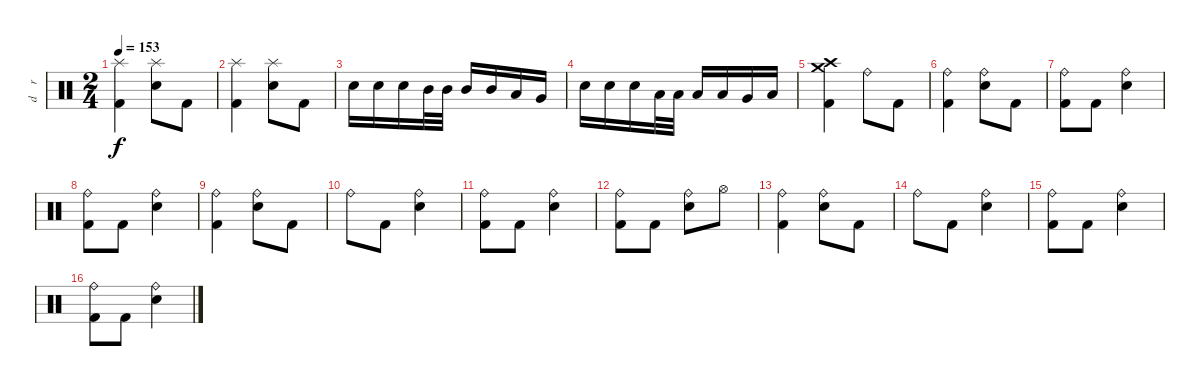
\track ("d    r     u    m    s" "d    r    ") {instrument percussion}
\staff {score}
\articulation defaults
\ts (2 4)
\tempo 153
\clef neutral
\ks c
("Splash (hit)" "Kick (hit) 2").4{dy f} ("Splash (hit)" "Electric Snare (hit)").8 "Kick (hit) 2".8 |
("Splash (hit)" "Kick (hit) 2").4 ("Splash (hit)" "Electric Snare (hit)").8 "Kick (hit) 2".8 |
"Electric Snare (hit)".16 "Electric Snare (hit)".16 "Electric Snare (hit)".16 "Mid Tom (hit)".32 "Mid Tom (hit)".32 "Mid Tom (hit)".16 "Mid Tom (hit)".16 "Low Tom (hit)".16 "Very Low Tom (hit)".16 |
"Electric Snare (hit)".16 "Electric Snare (hit)".16 "Electric Snare (hit)".16 "Low Tom (hit)".32 "Low Tom (hit)".32 "Low Tom (hit)".16 "Low Tom (hit)".16 "Very Low Tom (hit)".16 "Low Floor Tom (hit)".16 |
("Crash high (hit)" "Crash medium (hit)" "Kick (hit) 2").4 "Ride (bell)".8 "Kick (hit) 2".8 |
("Ride (bell)" "Kick (hit) 2").4 ("Ride (bell)" "Electric Snare (hit)").8 "Kick (hit) 2".8 |
("Ride (bell)" "Kick (hit) 2").8 "Kick (hit) 2".8 ("Ride (bell)" "Electric Snare (hit)").4 |
("Ride (bell)" "Kick (hit) 2").8 "Kick (hit) 2".8 ("Ride (bell)" "Electric Snare (hit)").4 |
("Ride (bell)" "Kick (hit) 2").4 ("Ride (bell)" "Electric Snare (hit)").8 "Kick (hit) 2".8 |
"Ride (bell)".8 "Kick (hit) 2".8 ("Ride (bell)" "Electric Snare (hit)").4 |
("Ride (bell)" "Kick (hit) 2").8 "Kick (hit) 2".8 ("Ride (bell)" "Electric Snare (hit)").4 |
("Ride (bell)" "Kick (hit) 2").8 "Kick (hit) 2".8 ("Ride (bell)" "Electric Snare (hit)").8 "Hi-Hat (open)".8 |
("Ride (bell)" "Kick (hit) 2").4 ("Ride (bell)" "Electric Snare (hit)").8 "Kick (hit) 2".8 |
"Ride (bell)".8 "Kick (hit) 2".8 ("Ride (bell)" "Electric Snare (hit)").4 |
("Ride (bell)" "Kick (hit) 2").8 "Kick (hit) 2".8 ("Ride (bell)" "Electric Snare (hit)").4 |
("Ride (bell)" "Kick (hit) 2").8 "Kick (hit) 2".8 ("Ride (bell)" "Electric Snare (hit)").4
